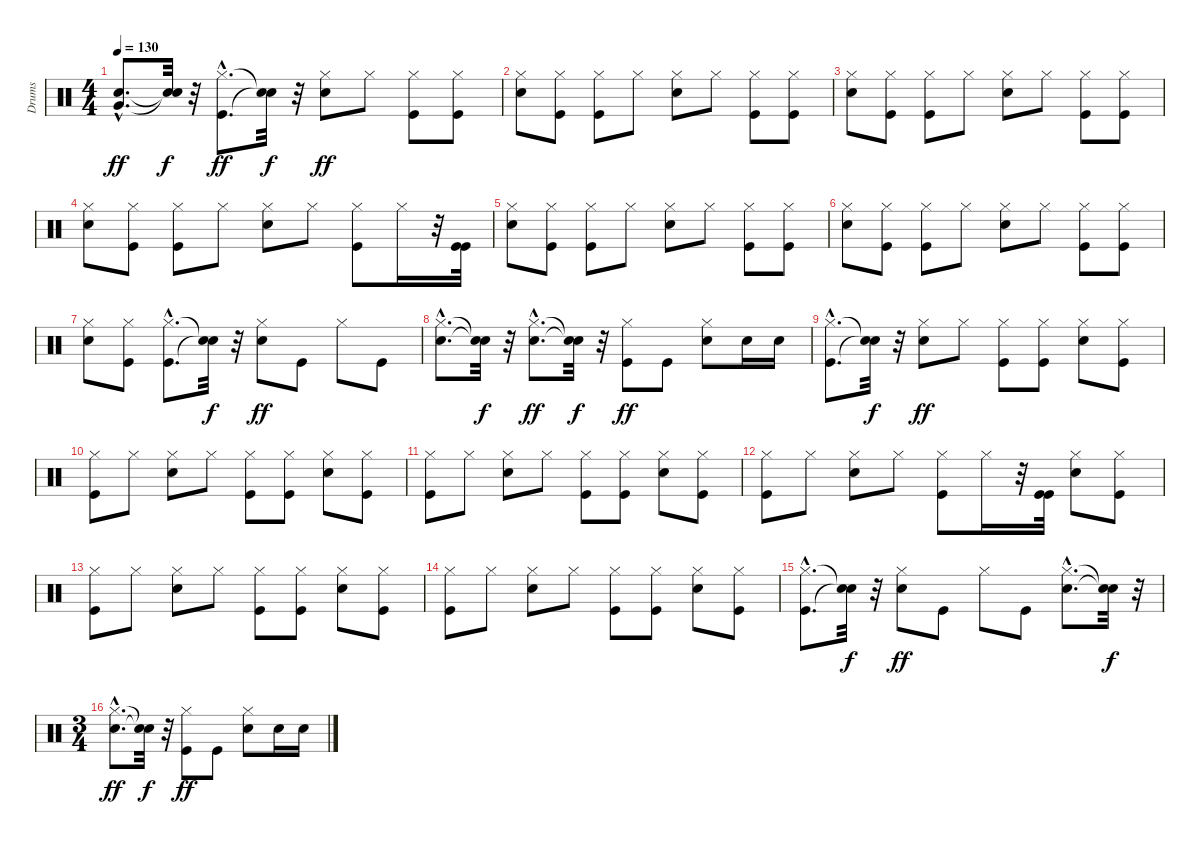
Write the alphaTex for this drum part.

\track ("Drums" "Drums") {instrument percussion}
\staff {score}
\articulation defaults
\ts (4 4)
\tempo 130
\clef neutral
\ks c
("Snare (hit) 2"{hac} "Very Low Tom (hit)"{hac}).8{d dy ff} ("Snare (hit)"{t} "Snare (hit)"{t}).32{dy f} r.32 ("Kick (hit)"{hac} "Hi-Hat (closed)"{hac}).8{d dy ff} ("Snare (hit)"{t} "Snare (hit)"{t}).32{dy f} r.32 ("Snare (hit) 2" "Hi-Hat (closed)").8{dy ff} "Hi-Hat (closed)".8 ("Kick (hit)" "Hi-Hat (closed)").8 ("Kick (hit)" "Hi-Hat (closed)").8 |
("Snare (hit) 2" "Hi-Hat (closed)").8 ("Kick (hit)" "Hi-Hat (closed)").8 ("Kick (hit)" "Hi-Hat (closed)").8 "Hi-Hat (closed)".8 ("Snare (hit) 2" "Hi-Hat (closed)").8 "Hi-Hat (closed)".8 ("Kick (hit)" "Hi-Hat (closed)").8 ("Kick (hit)" "Hi-Hat (closed)").8 |
("Snare (hit) 2" "Hi-Hat (closed)").8 ("Kick (hit)" "Hi-Hat (closed)").8 ("Kick (hit)" "Hi-Hat (closed)").8 "Hi-Hat (closed)".8 ("Snare (hit) 2" "Hi-Hat (closed)").8 "Hi-Hat (closed)".8 ("Kick (hit)" "Hi-Hat (closed)").8 ("Kick (hit)" "Hi-Hat (closed)").8 |
("Snare (hit) 2" "Hi-Hat (closed)").8 ("Kick (hit)" "Hi-Hat (closed)").8 ("Kick (hit)" "Hi-Hat (closed)").8 "Hi-Hat (closed)".8 ("Snare (hit) 2" "Hi-Hat (closed)").8 "Hi-Hat (closed)".8 ("Kick (hit)" "Hi-Hat (closed)").8 "Hi-Hat (closed)".16 r.32 ("Kick (hit)" "Kick (hit)").32 |
("Snare (hit) 2" "Hi-Hat (closed)").8 ("Kick (hit)" "Hi-Hat (closed)").8 ("Kick (hit)" "Hi-Hat (closed)").8 "Hi-Hat (closed)".8 ("Snare (hit) 2" "Hi-Hat (closed)").8 "Hi-Hat (closed)".8 ("Kick (hit)" "Hi-Hat (closed)").8 ("Kick (hit)" "Hi-Hat (closed)").8 |
("Snare (hit) 2" "Hi-Hat (closed)").8 ("Kick (hit)" "Hi-Hat (closed)").8 ("Kick (hit)" "Hi-Hat (closed)").8 "Hi-Hat (closed)".8 ("Snare (hit) 2" "Hi-Hat (closed)").8 "Hi-Hat (closed)".8 ("Kick (hit)" "Hi-Hat (closed)").8 ("Kick (hit)" "Hi-Hat (closed)").8 |
("Snare (hit) 2" "Hi-Hat (closed)").8 ("Kick (hit)" "Hi-Hat (closed)").8 ("Kick (hit)"{hac} "Hi-Hat (closed)"{hac}).8{d} ("Snare (hit)"{t} "Snare (hit)"{t}).32{dy f} r.32 ("Snare (hit) 2" "Hi-Hat (closed)").8{dy ff} "Kick (hit)".8 "Hi-Hat (closed)".8 "Kick (hit)".8 |
("Snare (hit) 2"{hac} "Hi-Hat (closed)"{hac}).8{d} ("Snare (hit)"{t} "Snare (hit)"{t}).32{dy f} r.32 ("Snare (hit) 2"{hac} "Hi-Hat (closed)"{hac}).8{d dy ff} ("Snare (hit)"{t} "Snare (hit)"{t}).32{dy f} r.32 ("Kick (hit)" "Hi-Hat (closed)").8{dy ff} "Kick (hit)".8 ("Snare (hit) 2" "Hi-Hat (closed)").8 "Snare (hit) 2".16 "Snare (hit) 2".16 |
("Kick (hit)"{hac} "Hi-Hat (closed)"{hac}).8{d} ("Snare (hit)"{t} "Snare (hit)"{t}).32{dy f} r.32 ("Snare (hit) 2" "Hi-Hat (closed)").8{dy ff} "Hi-Hat (closed)".8 ("Kick (hit)" "Hi-Hat (closed)").8 ("Kick (hit)" "Hi-Hat (closed)").8 ("Snare (hit) 2" "Hi-Hat (closed)").8 ("Kick (hit)" "Hi-Hat (closed)").8 |
("Kick (hit)" "Hi-Hat (closed)").8 "Hi-Hat (closed)".8 ("Snare (hit) 2" "Hi-Hat (closed)").8 "Hi-Hat (closed)".8 ("Kick (hit)" "Hi-Hat (closed)").8 ("Kick (hit)" "Hi-Hat (closed)").8 ("Snare (hit) 2" "Hi-Hat (closed)").8 ("Kick (hit)" "Hi-Hat (closed)").8 |
("Kick (hit)" "Hi-Hat (closed)").8 "Hi-Hat (closed)".8 ("Snare (hit) 2" "Hi-Hat (closed)").8 "Hi-Hat (closed)".8 ("Kick (hit)" "Hi-Hat (closed)").8 ("Kick (hit)" "Hi-Hat (closed)").8 ("Snare (hit) 2" "Hi-Hat (closed)").8 ("Kick (hit)" "Hi-Hat (closed)").8 |
("Kick (hit)" "Hi-Hat (closed)").8 "Hi-Hat (closed)".8 ("Snare (hit) 2" "Hi-Hat (closed)").8 "Hi-Hat (closed)".8 ("Kick (hit)" "Hi-Hat (closed)").8 "Hi-Hat (closed)".16 r.32 ("Kick (hit)" "Kick (hit)").32 ("Snare (hit) 2" "Hi-Hat (closed)").8 ("Kick (hit)" "Hi-Hat (closed)").8 |
("Kick (hit)" "Hi-Hat (closed)").8 "Hi-Hat (closed)".8 ("Snare (hit) 2" "Hi-Hat (closed)").8 "Hi-Hat (closed)".8 ("Kick (hit)" "Hi-Hat (closed)").8 ("Kick (hit)" "Hi-Hat (closed)").8 ("Snare (hit) 2" "Hi-Hat (closed)").8 ("Kick (hit)" "Hi-Hat (closed)").8 |
("Kick (hit)" "Hi-Hat (closed)").8 "Hi-Hat (closed)".8 ("Snare (hit) 2" "Hi-Hat (closed)").8 "Hi-Hat (closed)".8 ("Kick (hit)" "Hi-Hat (closed)").8 ("Kick (hit)" "Hi-Hat (closed)").8 ("Snare (hit) 2" "Hi-Hat (closed)").8 ("Kick (hit)" "Hi-Hat (closed)").8 |
("Kick (hit)"{hac} "Hi-Hat (closed)"{hac}).8{d} ("Snare (hit)"{t} "Snare (hit)"{t}).32{dy f} r.32 ("Snare (hit) 2" "Hi-Hat (closed)").8{dy ff} "Kick (hit)".8 "Hi-Hat (closed)".8 "Kick (hit)".8 ("Snare (hit) 2"{hac} "Hi-Hat (closed)"{hac}).8{d} ("Snare (hit)"{t} "Snare (hit)"{t}).32{dy f} r.32 |
\ts (3 4)
("Snare (hit) 2"{hac} "Hi-Hat (closed)"{hac}).8{d dy ff} ("Snare (hit)"{t} "Snare (hit)"{t}).32{dy f} r.32 ("Kick (hit)" "Hi-Hat (closed)").8{dy ff} "Kick (hit)".8 ("Snare (hit) 2" "Hi-Hat (closed)").8 "Snare (hit) 2".16 "Snare (hit) 2".16
